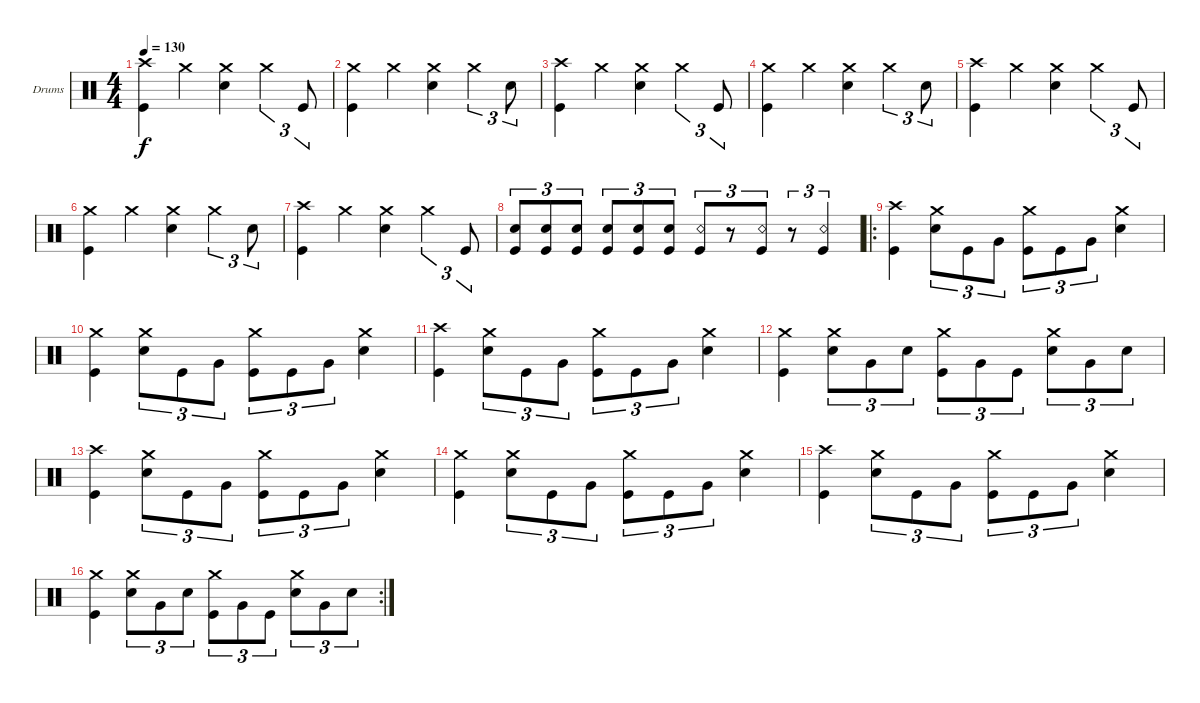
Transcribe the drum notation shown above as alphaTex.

\defaultSystemsLayout 4
\bracketExtendMode groupsimilarinstruments
\firstSystemTrackNameOrientation horizontal
\otherSystemsTrackNameOrientation horizontal
\track ("Drumkit" "Drums") {instrument percussion}
\staff {score}
\articulation defaults
\ts (4 4)
\tempo 130
\clef neutral
\ks c
("Kick (hit)" "Crash high (hit)").4{dy f} "Crash medium (hit)".4 ("Snare (hit) 2" "Crash medium (hit)").4 "Crash medium (hit)".4{tu (3 2)} "Kick (hit)".8{tu (3 2)} |
("Kick (hit)" "Crash medium (hit)").4 "Crash medium (hit)".4 ("Snare (hit) 2" "Crash medium (hit)").4 "Crash medium (hit)".4{tu (3 2)} "Snare (hit) 2".8{tu (3 2)} |
("Kick (hit)" "Crash high (hit)").4 "Crash medium (hit)".4 ("Snare (hit) 2" "Crash medium (hit)").4 "Crash medium (hit)".4{tu (3 2)} "Kick (hit)".8{tu (3 2)} |
("Kick (hit)" "Crash medium (hit)").4 "Crash medium (hit)".4 ("Snare (hit) 2" "Crash medium (hit)").4 "Crash medium (hit)".4{tu (3 2)} "Snare (hit) 2".8{tu (3 2)} |
("Kick (hit)" "Crash high (hit)").4 "Crash medium (hit)".4 ("Snare (hit) 2" "Crash medium (hit)").4 "Crash medium (hit)".4{tu (3 2)} "Kick (hit)".8{tu (3 2)} |
("Kick (hit)" "Crash medium (hit)").4 "Crash medium (hit)".4 ("Snare (hit) 2" "Crash medium (hit)").4 "Crash medium (hit)".4{tu (3 2)} "Snare (hit) 2".8{tu (3 2)} |
("Kick (hit)" "Crash high (hit)").4 "Crash medium (hit)".4 ("Snare (hit) 2" "Crash medium (hit)").4 "Crash medium (hit)".4{tu (3 2)} "Kick (hit)".8{tu (3 2)} |
("Kick (hit)" "Snare (hit) 2").8{tu (3 2)} ("Kick (hit)" "Snare (hit) 2").8{tu (3 2)} ("Kick (hit)" "Snare (hit) 2").8{tu (3 2)} ("Kick (hit)" "Snare (hit) 2").8{tu (3 2)} ("Kick (hit)" "Snare (hit) 2").8{tu (3 2)} ("Kick (hit)" "Snare (hit) 2").8{tu (3 2)} ("Kick (hit)" "Snare (rim shot)").8{tu (3 2)} r.8{tu (3 2)} ("Kick (hit)" "Snare (rim shot)").8{tu (3 2)} r.8{tu (3 2)} ("Kick (hit)" "Snare (rim shot)").4{tu (3 2)} |
\ro
("Kick (hit)" "Crash high (hit)").4 ("Snare (hit) 2" "Crash medium (hit)").8{tu (3 2)} "Kick (hit)".8{tu (3 2)} "Very Low Tom (hit)".8{tu (3 2)} ("Kick (hit)" "Crash medium (hit)").8{tu (3 2)} "Kick (hit)".8{tu (3 2)} "Very Low Tom (hit)".8{tu (3 2)} ("Snare (hit) 2" "Crash medium (hit)").4 |
("Kick (hit)" "Crash medium (hit)").4 ("Snare (hit) 2" "Crash medium (hit)").8{tu (3 2)} "Kick (hit)".8{tu (3 2)} "Very Low Tom (hit)".8{tu (3 2)} ("Kick (hit)" "Crash medium (hit)").8{tu (3 2)} "Kick (hit)".8{tu (3 2)} "Very Low Tom (hit)".8{tu (3 2)} ("Snare (hit) 2" "Crash medium (hit)").4 |
("Kick (hit)" "Crash high (hit)").4 ("Snare (hit) 2" "Crash medium (hit)").8{tu (3 2)} "Kick (hit)".8{tu (3 2)} "Very Low Tom (hit)".8{tu (3 2)} ("Kick (hit)" "Crash medium (hit)").8{tu (3 2)} "Kick (hit)".8{tu (3 2)} "Very Low Tom (hit)".8{tu (3 2)} ("Snare (hit) 2" "Crash medium (hit)").4 |
("Kick (hit)" "Crash medium (hit)").4 ("Snare (hit) 2" "Crash medium (hit)").8{tu (3 2)} "Very Low Tom (hit)".8{tu (3 2)} "Snare (hit) 2".8{tu (3 2)} ("Kick (hit)" "Crash medium (hit)").8{tu (3 2)} "Very Low Tom (hit)".8{tu (3 2)} "Kick (hit)".8{tu (3 2)} ("Snare (hit) 2" "Crash medium (hit)").8{tu (3 2)} "Very Low Tom (hit)".8{tu (3 2)} "Snare (hit) 2".8{tu (3 2)} |
("Kick (hit)" "Crash high (hit)").4 ("Snare (hit) 2" "Crash medium (hit)").8{tu (3 2)} "Kick (hit)".8{tu (3 2)} "Very Low Tom (hit)".8{tu (3 2)} ("Kick (hit)" "Crash medium (hit)").8{tu (3 2)} "Kick (hit)".8{tu (3 2)} "Very Low Tom (hit)".8{tu (3 2)} ("Snare (hit) 2" "Crash medium (hit)").4 |
("Kick (hit)" "Crash medium (hit)").4 ("Snare (hit) 2" "Crash medium (hit)").8{tu (3 2)} "Kick (hit)".8{tu (3 2)} "Very Low Tom (hit)".8{tu (3 2)} ("Kick (hit)" "Crash medium (hit)").8{tu (3 2)} "Kick (hit)".8{tu (3 2)} "Very Low Tom (hit)".8{tu (3 2)} ("Snare (hit) 2" "Crash medium (hit)").4 |
("Kick (hit)" "Crash high (hit)").4 ("Snare (hit) 2" "Crash medium (hit)").8{tu (3 2)} "Kick (hit)".8{tu (3 2)} "Very Low Tom (hit)".8{tu (3 2)} ("Kick (hit)" "Crash medium (hit)").8{tu (3 2)} "Kick (hit)".8{tu (3 2)} "Very Low Tom (hit)".8{tu (3 2)} ("Snare (hit) 2" "Crash medium (hit)").4 |
\rc 2
("Kick (hit)" "Crash medium (hit)").4 ("Snare (hit) 2" "Crash medium (hit)").8{tu (3 2)} "Very Low Tom (hit)".8{tu (3 2)} "Snare (hit) 2".8{tu (3 2)} ("Kick (hit)" "Crash medium (hit)").8{tu (3 2)} "Very Low Tom (hit)".8{tu (3 2)} "Kick (hit)".8{tu (3 2)} ("Snare (hit) 2" "Crash medium (hit)").8{tu (3 2)} "Very Low Tom (hit)".8{tu (3 2)} "Snare (hit) 2".8{tu (3 2)}
